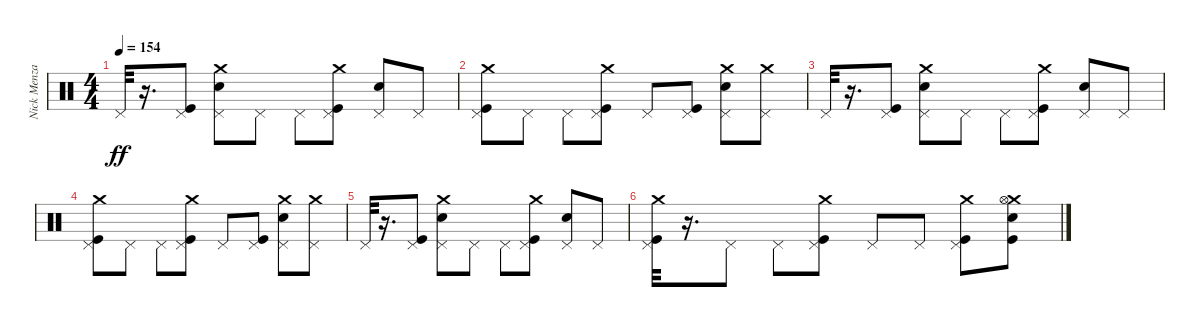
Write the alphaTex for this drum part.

\track ("Nick Menza" "Nick Menza") {instrument percussion}
\staff {score}
\articulation defaults
\ts (4 4)
\tempo 154
\clef neutral
\ks c "Pedal Hi-Hat (hit)".32{dy ff}
r.16{d} ("Pedal Hi-Hat (hit)" "Kick (hit)").8 ("Electric Snare (hit)" "Pedal Hi-Hat (hit)" "Crash medium (hit)").8 "Pedal Hi-Hat (hit)".8 "Pedal Hi-Hat (hit)".8 ("Kick (hit)" "Pedal Hi-Hat (hit)" "Crash medium (hit)").8 ("Electric Snare (hit)" "Pedal Hi-Hat (hit)").8 "Pedal Hi-Hat (hit)".8 |
("Crash medium (hit)" "Kick (hit)" "Pedal Hi-Hat (hit)").8 "Pedal Hi-Hat (hit)".8 "Pedal Hi-Hat (hit)".8 ("Crash medium (hit)" "Pedal Hi-Hat (hit)" "Kick (hit)").8 "Pedal Hi-Hat (hit)".8 ("Kick (hit)" "Pedal Hi-Hat (hit)").8 ("Crash medium (hit)" "Electric Snare (hit)" "Pedal Hi-Hat (hit)").8 ("Crash medium (hit)" "Pedal Hi-Hat (hit)").8 |
"Pedal Hi-Hat (hit)".32 r.16{d} ("Pedal Hi-Hat (hit)" "Kick (hit)").8 ("Crash medium (hit)" "Electric Snare (hit)" "Pedal Hi-Hat (hit)").8 "Pedal Hi-Hat (hit)".8 "Pedal Hi-Hat (hit)".8 ("Crash medium (hit)" "Kick (hit)" "Pedal Hi-Hat (hit)").8 ("Electric Snare (hit)" "Pedal Hi-Hat (hit)").8 "Pedal Hi-Hat (hit)".8 |
("Crash medium (hit)" "Pedal Hi-Hat (hit)" "Kick (hit)").8 "Pedal Hi-Hat (hit)".8 "Pedal Hi-Hat (hit)".8 ("Crash medium (hit)" "Pedal Hi-Hat (hit)" "Kick (hit)").8 "Pedal Hi-Hat (hit)".8 ("Kick (hit)" "Pedal Hi-Hat (hit)").8 ("Crash medium (hit)" "Electric Snare (hit)" "Pedal Hi-Hat (hit)").8 ("Crash medium (hit)" "Pedal Hi-Hat (hit)").8 |
"Pedal Hi-Hat (hit)".32 r.16{d} ("Pedal Hi-Hat (hit)" "Kick (hit)").8 ("Crash medium (hit)" "Electric Snare (hit)" "Pedal Hi-Hat (hit)").8 "Pedal Hi-Hat (hit)".8 "Pedal Hi-Hat (hit)".8 ("Kick (hit)" "Pedal Hi-Hat (hit)" "Crash medium (hit)").8 ("Electric Snare (hit)" "Pedal Hi-Hat (hit)").8 "Pedal Hi-Hat (hit)".8 |
("Crash medium (hit)" "Kick (hit)" "Pedal Hi-Hat (hit)").32 r.16{d} "Pedal Hi-Hat (hit)".8 "Pedal Hi-Hat (hit)".8 ("Crash medium (hit)" "Pedal Hi-Hat (hit)" "Kick (hit)").8 "Pedal Hi-Hat (hit)".8 "Pedal Hi-Hat (hit)".8 ("Crash medium (hit)" "Kick (hit)" "Pedal Hi-Hat (hit)").8 ("Crash medium (hit)" "Kick (hit)" "Electric Snare (hit)" "Hi-Hat (open)").8
